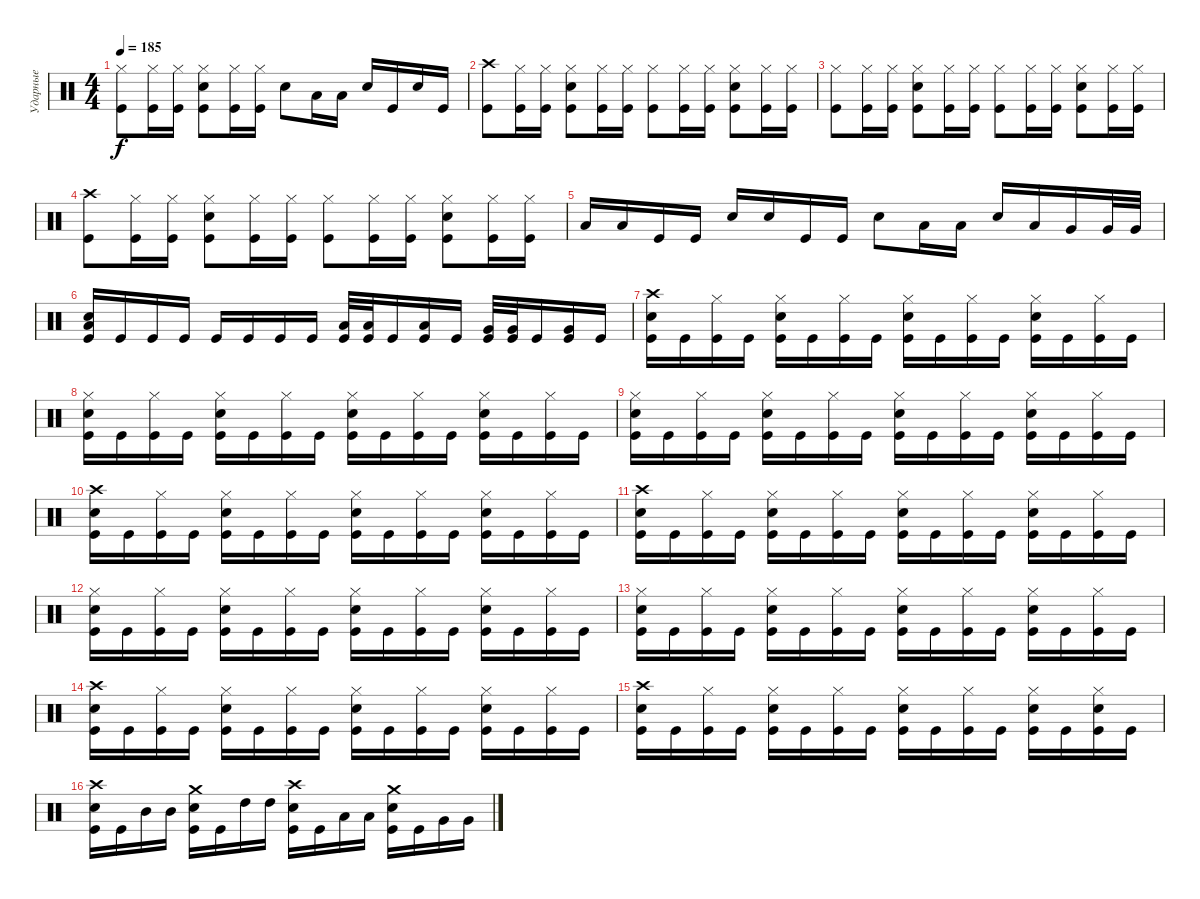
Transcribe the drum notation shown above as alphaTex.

\track ("Ударные" "Ударные") {instrument percussion}
\staff {score}
\articulation defaults
\ts (4 4)
\tempo 185
\clef neutral
\ks c
("Hi-Hat (closed)" "Kick (hit)").8{dy f} ("Hi-Hat (closed)" "Kick (hit)").16 ("Hi-Hat (closed)" "Kick (hit)").16 ("Hi-Hat (closed)" "Electric Snare (hit)" "Kick (hit)").8 ("Hi-Hat (closed)" "Kick (hit)").16 ("Hi-Hat (closed)" "Kick (hit)").16 "Electric Snare (hit)".8 "Low Tom (hit)".16 "Low Tom (hit)".16 "Electric Snare (hit)".16 "Kick (hit)".16 "Electric Snare (hit)".16 "Kick (hit)".16 |
("Crash high (hit)" "Kick (hit)").8 ("Hi-Hat (closed)" "Kick (hit)").16 ("Hi-Hat (closed)" "Kick (hit)").16 ("Hi-Hat (closed)" "Electric Snare (hit)" "Kick (hit)").8 ("Hi-Hat (closed)" "Kick (hit)").16 ("Hi-Hat (closed)" "Kick (hit)").16 ("Hi-Hat (closed)" "Kick (hit)").8 ("Hi-Hat (closed)" "Kick (hit)").16 ("Hi-Hat (closed)" "Kick (hit)").16 ("Hi-Hat (closed)" "Electric Snare (hit)" "Kick (hit)").8 ("Hi-Hat (closed)" "Kick (hit)").16 ("Hi-Hat (closed)" "Kick (hit)").16 |
("Hi-Hat (closed)" "Kick (hit)").8 ("Hi-Hat (closed)" "Kick (hit)").16 ("Hi-Hat (closed)" "Kick (hit)").16 ("Hi-Hat (closed)" "Electric Snare (hit)" "Kick (hit)").8 ("Hi-Hat (closed)" "Kick (hit)").16 ("Hi-Hat (closed)" "Kick (hit)").16 ("Hi-Hat (closed)" "Kick (hit)").8 ("Hi-Hat (closed)" "Kick (hit)").16 ("Hi-Hat (closed)" "Kick (hit)").16 ("Hi-Hat (closed)" "Electric Snare (hit)" "Kick (hit)").8 ("Hi-Hat (closed)" "Kick (hit)").16 ("Hi-Hat (closed)" "Kick (hit)").16 |
("Crash high (hit)" "Kick (hit)").8 ("Hi-Hat (closed)" "Kick (hit)").16 ("Hi-Hat (closed)" "Kick (hit)").16 ("Hi-Hat (closed)" "Electric Snare (hit)" "Kick (hit)").8 ("Hi-Hat (closed)" "Kick (hit)").16 ("Hi-Hat (closed)" "Kick (hit)").16 ("Hi-Hat (closed)" "Kick (hit)").8 ("Hi-Hat (closed)" "Kick (hit)").16 ("Hi-Hat (closed)" "Kick (hit)").16 ("Hi-Hat (closed)" "Electric Snare (hit)" "Kick (hit)").8 ("Hi-Hat (closed)" "Kick (hit)").16 ("Hi-Hat (closed)" "Kick (hit)").16 |
"Low Tom (hit)".16 "Low Tom (hit)".16 "Kick (hit)".16 "Kick (hit)".16 "Electric Snare (hit)".16 "Electric Snare (hit)".16 "Kick (hit)".16 "Kick (hit)".16 "Electric Snare (hit)".8 "Low Tom (hit)".16 "Low Tom (hit)".16 "Electric Snare (hit)".16 "Low Tom (hit)".16 "Very Low Tom (hit)".16 "Very Low Tom (hit)".32 "Very Low Tom (hit)".32 |
("Low Tom (hit)" "Electric Snare (hit)" "Kick (hit)").16 "Kick (hit)".16 "Kick (hit)".16 "Kick (hit)".16 "Kick (hit)".16 "Kick (hit)".16 "Kick (hit)".16 "Kick (hit)".16 ("Low Tom (hit)" "Kick (hit)").32 ("Low Tom (hit)" "Kick (hit)").32 "Kick (hit)".16 ("Low Tom (hit)" "Kick (hit)").16 "Kick (hit)".16 ("Very Low Tom (hit)" "Kick (hit)").32 ("Very Low Tom (hit)" "Kick (hit)").32 "Kick (hit)".16 ("Very Low Tom (hit)" "Kick (hit)").16 "Kick (hit)".16 |
("Crash high (hit)" "Electric Snare (hit)" "Kick (hit)").16 "Kick (hit)".16 ("Hi-Hat (closed)" "Kick (hit)").16 "Kick (hit)".16 ("Hi-Hat (closed)" "Electric Snare (hit)" "Kick (hit)").16 "Kick (hit)".16 ("Hi-Hat (closed)" "Kick (hit)").16 "Kick (hit)".16 ("Hi-Hat (closed)" "Electric Snare (hit)" "Kick (hit)").16 "Kick (hit)".16 ("Hi-Hat (closed)" "Kick (hit)").16 "Kick (hit)".16 ("Hi-Hat (closed)" "Electric Snare (hit)" "Kick (hit)").16 "Kick (hit)".16 ("Hi-Hat (closed)" "Kick (hit)").16 "Kick (hit)".16 |
("Hi-Hat (closed)" "Electric Snare (hit)" "Kick (hit)").16 "Kick (hit)".16 ("Hi-Hat (closed)" "Kick (hit)").16 "Kick (hit)".16 ("Hi-Hat (closed)" "Electric Snare (hit)" "Kick (hit)").16 "Kick (hit)".16 ("Hi-Hat (closed)" "Kick (hit)").16 "Kick (hit)".16 ("Hi-Hat (closed)" "Electric Snare (hit)" "Kick (hit)").16 "Kick (hit)".16 ("Hi-Hat (closed)" "Kick (hit)").16 "Kick (hit)".16 ("Hi-Hat (closed)" "Electric Snare (hit)" "Kick (hit)").16 "Kick (hit)".16 ("Hi-Hat (closed)" "Kick (hit)").16 "Kick (hit)".16 |
("Hi-Hat (closed)" "Electric Snare (hit)" "Kick (hit)").16 "Kick (hit)".16 ("Hi-Hat (closed)" "Kick (hit)").16 "Kick (hit)".16 ("Hi-Hat (closed)" "Electric Snare (hit)" "Kick (hit)").16 "Kick (hit)".16 ("Hi-Hat (closed)" "Kick (hit)").16 "Kick (hit)".16 ("Hi-Hat (closed)" "Electric Snare (hit)" "Kick (hit)").16 "Kick (hit)".16 ("Hi-Hat (closed)" "Kick (hit)").16 "Kick (hit)".16 ("Hi-Hat (closed)" "Electric Snare (hit)" "Kick (hit)").16 "Kick (hit)".16 ("Hi-Hat (closed)" "Kick (hit)").16 "Kick (hit)".16 |
("Crash high (hit)" "Electric Snare (hit)" "Kick (hit)").16 "Kick (hit)".16 ("Hi-Hat (closed)" "Kick (hit)").16 "Kick (hit)".16 ("Hi-Hat (closed)" "Electric Snare (hit)" "Kick (hit)").16 "Kick (hit)".16 ("Hi-Hat (closed)" "Kick (hit)").16 "Kick (hit)".16 ("Hi-Hat (closed)" "Electric Snare (hit)" "Kick (hit)").16 "Kick (hit)".16 ("Hi-Hat (closed)" "Kick (hit)").16 "Kick (hit)".16 ("Hi-Hat (closed)" "Electric Snare (hit)" "Kick (hit)").16 "Kick (hit)".16 ("Hi-Hat (closed)" "Kick (hit)").16 "Kick (hit)".16 |
("Crash high (hit)" "Electric Snare (hit)" "Kick (hit)").16 "Kick (hit)".16 ("Hi-Hat (closed)" "Kick (hit)").16 "Kick (hit)".16 ("Hi-Hat (closed)" "Electric Snare (hit)" "Kick (hit)").16 "Kick (hit)".16 ("Hi-Hat (closed)" "Kick (hit)").16 "Kick (hit)".16 ("Hi-Hat (closed)" "Electric Snare (hit)" "Kick (hit)").16 "Kick (hit)".16 ("Hi-Hat (closed)" "Kick (hit)").16 "Kick (hit)".16 ("Hi-Hat (closed)" "Electric Snare (hit)" "Kick (hit)").16 "Kick (hit)".16 ("Hi-Hat (closed)" "Kick (hit)").16 "Kick (hit)".16 |
("Hi-Hat (closed)" "Electric Snare (hit)" "Kick (hit)").16 "Kick (hit)".16 ("Hi-Hat (closed)" "Kick (hit)").16 "Kick (hit)".16 ("Hi-Hat (closed)" "Electric Snare (hit)" "Kick (hit)").16 "Kick (hit)".16 ("Hi-Hat (closed)" "Kick (hit)").16 "Kick (hit)".16 ("Hi-Hat (closed)" "Electric Snare (hit)" "Kick (hit)").16 "Kick (hit)".16 ("Hi-Hat (closed)" "Kick (hit)").16 "Kick (hit)".16 ("Hi-Hat (closed)" "Electric Snare (hit)" "Kick (hit)").16 "Kick (hit)".16 ("Hi-Hat (closed)" "Kick (hit)").16 "Kick (hit)".16 |
("Hi-Hat (closed)" "Electric Snare (hit)" "Kick (hit)").16 "Kick (hit)".16 ("Hi-Hat (closed)" "Kick (hit)").16 "Kick (hit)".16 ("Hi-Hat (closed)" "Electric Snare (hit)" "Kick (hit)").16 "Kick (hit)".16 ("Hi-Hat (closed)" "Kick (hit)").16 "Kick (hit)".16 ("Hi-Hat (closed)" "Electric Snare (hit)" "Kick (hit)").16 "Kick (hit)".16 ("Hi-Hat (closed)" "Kick (hit)").16 "Kick (hit)".16 ("Hi-Hat (closed)" "Electric Snare (hit)" "Kick (hit)").16 "Kick (hit)".16 ("Hi-Hat (closed)" "Kick (hit)").16 "Kick (hit)".16 |
("Crash high (hit)" "Electric Snare (hit)" "Kick (hit)").16 "Kick (hit)".16 ("Hi-Hat (closed)" "Kick (hit)").16 "Kick (hit)".16 ("Hi-Hat (closed)" "Electric Snare (hit)" "Kick (hit)").16 "Kick (hit)".16 ("Hi-Hat (closed)" "Kick (hit)").16 "Kick (hit)".16 ("Hi-Hat (closed)" "Electric Snare (hit)" "Kick (hit)").16 "Kick (hit)".16 ("Hi-Hat (closed)" "Kick (hit)").16 "Kick (hit)".16 ("Hi-Hat (closed)" "Electric Snare (hit)" "Kick (hit)").16 "Kick (hit)".16 ("Hi-Hat (closed)" "Kick (hit)").16 "Kick (hit)".16 |
("Crash high (hit)" "Electric Snare (hit)" "Kick (hit)").16 "Kick (hit)".16 ("Hi-Hat (closed)" "Kick (hit)").16 "Kick (hit)".16 ("Hi-Hat (closed)" "Electric Snare (hit)" "Kick (hit)").16 "Kick (hit)".16 ("Hi-Hat (closed)" "Kick (hit)").16 "Kick (hit)".16 ("Hi-Hat (closed)" "Electric Snare (hit)" "Kick (hit)").16 "Kick (hit)".16 ("Hi-Hat (closed)" "Kick (hit)").16 "Kick (hit)".16 ("Hi-Hat (closed)" "Electric Snare (hit)" "Kick (hit)").16 "Kick (hit)".16 ("Hi-Hat (closed)" "Electric Snare (hit)" "Kick (hit)").16 "Kick (hit)".16 |
("Crash high (hit)" "Electric Snare (hit)" "Kick (hit)").16 "Kick (hit)".16 "Mid Tom (hit)".16 "Mid Tom (hit)".16 ("Crash medium (hit)" "Electric Snare (hit)" "Kick (hit)").16 "Kick (hit)".16 "High Tom (hit)".16 "High Tom (hit)".16 ("Crash high (hit)" "Electric Snare (hit)" "Kick (hit)").16 "Kick (hit)".16 "Low Tom (hit)".16 "Low Tom (hit)".16 ("Crash medium (hit)" "Electric Snare (hit)" "Kick (hit)").16 "Kick (hit)".16 "Very Low Tom (hit)".16 "Very Low Tom (hit)".16
